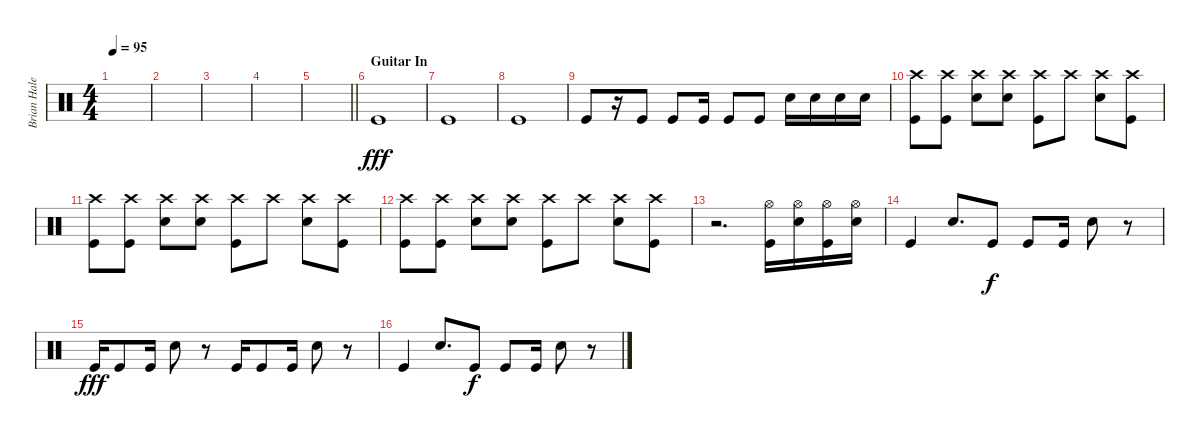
\track ("Brian Haley" "Brian Hale") {instrument percussion}
\staff {score}
\articulation defaults
\ts (4 4)
\tempo 95
\clef neutral
\ks c
|
|
|
|
\barLineRight lightlight
|
\section ("" "Guitar In")
"Kick (hit)".1{dy fff} |
"Kick (hit)".1 |
"Kick (hit)".1 |
"Kick (hit)".8 r.16 "Kick (hit)".8 "Kick (hit)".8 "Kick (hit)".16 "Kick (hit)".8 "Kick (hit)".8 "Snare (hit) 2".16 "Snare (hit) 2".16 "Snare (hit) 2".16 "Snare (hit) 2".16 |
("Kick (hit)" "Crash high (hit)").8 ("Kick (hit)" "Crash high (hit)").8 ("Snare (hit) 2" "Crash high (hit)").8 ("Snare (hit) 2" "Crash high (hit)").8 ("Kick (hit)" "Crash high (hit)").8 "Crash high (hit)".8 ("Snare (hit) 2" "Crash high (hit)").8 ("Kick (hit)" "Crash high (hit)").8 |
("Kick (hit)" "Crash high (hit)").8 ("Kick (hit)" "Crash high (hit)").8 ("Snare (hit) 2" "Crash high (hit)").8 ("Snare (hit) 2" "Crash high (hit)").8 ("Kick (hit)" "Crash high (hit)").8 "Crash high (hit)".8 ("Snare (hit) 2" "Crash high (hit)").8 ("Kick (hit)" "Crash high (hit)").8 |
("Kick (hit)" "Crash high (hit)").8 ("Kick (hit)" "Crash high (hit)").8 ("Snare (hit) 2" "Crash high (hit)").8 ("Snare (hit) 2" "Crash high (hit)").8 ("Kick (hit)" "Crash high (hit)").8 "Crash high (hit)".8 ("Snare (hit) 2" "Crash high (hit)").8 ("Kick (hit)" "Crash high (hit)").8 |
r.2{d} ("Hi-Hat (open)" "Kick (hit)").16 ("Hi-Hat (open)" "Snare (hit) 2").16 ("Hi-Hat (open)" "Kick (hit)").16 ("Hi-Hat (open)" "Snare (hit) 2").16 |
"Kick (hit)".4 "Snare (hit) 2".8{d} "Kick (hit)".8{dy f} "Kick (hit)".8 "Kick (hit)".16 "Snare (hit) 2".8 r.8 |
"Kick (hit)".16{dy fff} "Kick (hit)".8 "Kick (hit)".16 "Snare (hit) 2".8 r.8 "Kick (hit)".16 "Kick (hit)".8 "Kick (hit)".16 "Snare (hit) 2".8 r.8 |
"Kick (hit)".4 "Snare (hit) 2".8{d} "Kick (hit)".8{dy f} "Kick (hit)".8 "Kick (hit)".16 "Snare (hit) 2".8 r.8
